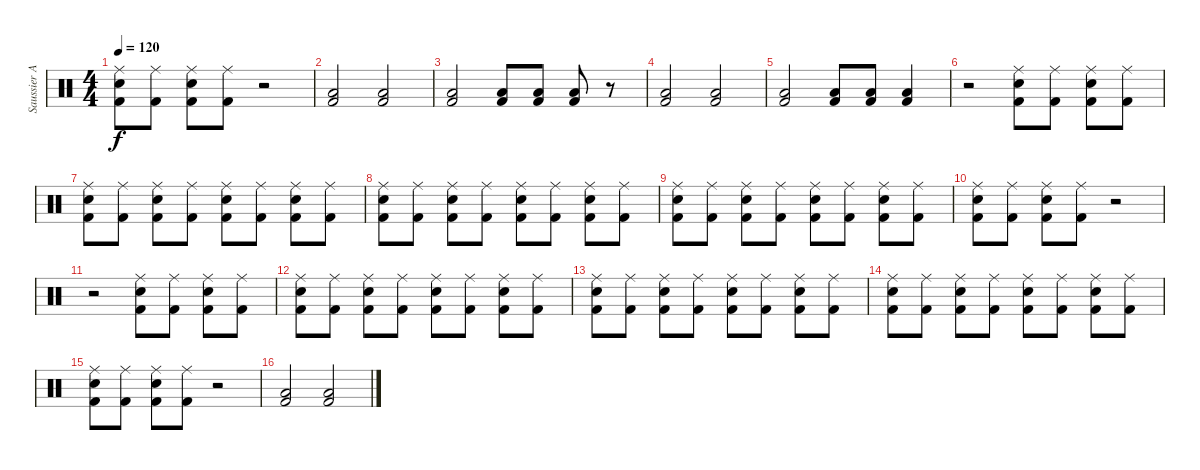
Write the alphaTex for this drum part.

\track ("Saussier Arthur" "Saussier A") {instrument percussion}
\staff {score}
\articulation defaults
\ts (4 4)
\tempo 120
\clef neutral
\ks c
("Ride (middle)" "Electric Snare (hit)" "Kick (hit) 2").8{dy f} ("Ride (middle)" "Kick (hit) 2").8 ("Ride (middle)" "Electric Snare (hit)" "Kick (hit) 2").8 ("Ride (middle)" "Kick (hit) 2").8 r.2 |
("Low Floor Tom (hit)" "Kick (hit) 2").2 ("Low Floor Tom (hit)" "Kick (hit) 2").2 |
("Low Floor Tom (hit)" "Kick (hit) 2").2 ("Low Floor Tom (hit)" "Kick (hit) 2").8 ("Low Floor Tom (hit)" "Kick (hit) 2").8 ("Low Floor Tom (hit)" "Kick (hit) 2").8 r.8 |
("Low Floor Tom (hit)" "Kick (hit) 2").2 ("Low Floor Tom (hit)" "Kick (hit) 2").2 |
("Low Floor Tom (hit)" "Kick (hit) 2").2 ("Low Floor Tom (hit)" "Kick (hit) 2").8 ("Low Floor Tom (hit)" "Kick (hit) 2").8 ("Low Floor Tom (hit)" "Kick (hit) 2").4 |
r.2 ("Ride (middle)" "Electric Snare (hit)" "Kick (hit) 2").8 ("Ride (middle)" "Kick (hit) 2").8 ("Ride (middle)" "Electric Snare (hit)" "Kick (hit) 2").8 ("Ride (middle)" "Kick (hit) 2").8 |
("Ride (middle)" "Electric Snare (hit)" "Kick (hit) 2").8 ("Ride (middle)" "Kick (hit) 2").8 ("Ride (middle)" "Electric Snare (hit)" "Kick (hit) 2").8 ("Ride (middle)" "Kick (hit) 2").8 ("Ride (middle)" "Electric Snare (hit)" "Kick (hit) 2").8 ("Ride (middle)" "Kick (hit) 2").8 ("Ride (middle)" "Electric Snare (hit)" "Kick (hit) 2").8 ("Ride (middle)" "Kick (hit) 2").8 |
("Ride (middle)" "Electric Snare (hit)" "Kick (hit) 2").8 ("Ride (middle)" "Kick (hit) 2").8 ("Ride (middle)" "Electric Snare (hit)" "Kick (hit) 2").8 ("Ride (middle)" "Kick (hit) 2").8 ("Ride (middle)" "Electric Snare (hit)" "Kick (hit) 2").8 ("Ride (middle)" "Kick (hit) 2").8 ("Ride (middle)" "Electric Snare (hit)" "Kick (hit) 2").8 ("Ride (middle)" "Kick (hit) 2").8 |
("Ride (middle)" "Electric Snare (hit)" "Kick (hit) 2").8 ("Ride (middle)" "Kick (hit) 2").8 ("Ride (middle)" "Electric Snare (hit)" "Kick (hit) 2").8 ("Ride (middle)" "Kick (hit) 2").8 ("Ride (middle)" "Electric Snare (hit)" "Kick (hit) 2").8 ("Ride (middle)" "Kick (hit) 2").8 ("Ride (middle)" "Electric Snare (hit)" "Kick (hit) 2").8 ("Ride (middle)" "Kick (hit) 2").8 |
("Ride (middle)" "Electric Snare (hit)" "Kick (hit) 2").8 ("Ride (middle)" "Kick (hit) 2").8 ("Ride (middle)" "Electric Snare (hit)" "Kick (hit) 2").8 ("Ride (middle)" "Kick (hit) 2").8 r.2 |
r.2 ("Ride (middle)" "Electric Snare (hit)" "Kick (hit) 2").8 ("Ride (middle)" "Kick (hit) 2").8 ("Ride (middle)" "Electric Snare (hit)" "Kick (hit) 2").8 ("Ride (middle)" "Kick (hit) 2").8 |
("Ride (middle)" "Electric Snare (hit)" "Kick (hit) 2").8 ("Ride (middle)" "Kick (hit) 2").8 ("Ride (middle)" "Electric Snare (hit)" "Kick (hit) 2").8 ("Ride (middle)" "Kick (hit) 2").8 ("Ride (middle)" "Electric Snare (hit)" "Kick (hit) 2").8 ("Ride (middle)" "Kick (hit) 2").8 ("Ride (middle)" "Electric Snare (hit)" "Kick (hit) 2").8 ("Ride (middle)" "Kick (hit) 2").8 |
("Ride (middle)" "Electric Snare (hit)" "Kick (hit) 2").8 ("Ride (middle)" "Kick (hit) 2").8 ("Ride (middle)" "Electric Snare (hit)" "Kick (hit) 2").8 ("Ride (middle)" "Kick (hit) 2").8 ("Ride (middle)" "Electric Snare (hit)" "Kick (hit) 2").8 ("Ride (middle)" "Kick (hit) 2").8 ("Ride (middle)" "Electric Snare (hit)" "Kick (hit) 2").8 ("Ride (middle)" "Kick (hit) 2").8 |
("Ride (middle)" "Electric Snare (hit)" "Kick (hit) 2").8 ("Ride (middle)" "Kick (hit) 2").8 ("Ride (middle)" "Electric Snare (hit)" "Kick (hit) 2").8 ("Ride (middle)" "Kick (hit) 2").8 ("Ride (middle)" "Electric Snare (hit)" "Kick (hit) 2").8 ("Ride (middle)" "Kick (hit) 2").8 ("Ride (middle)" "Electric Snare (hit)" "Kick (hit) 2").8 ("Ride (middle)" "Kick (hit) 2").8 |
("Ride (middle)" "Electric Snare (hit)" "Kick (hit) 2").8 ("Ride (middle)" "Kick (hit) 2").8 ("Ride (middle)" "Electric Snare (hit)" "Kick (hit) 2").8 ("Ride (middle)" "Kick (hit) 2").8 r.2 |
("Low Floor Tom (hit)" "Kick (hit) 2").2 ("Low Floor Tom (hit)" "Kick (hit) 2").2
